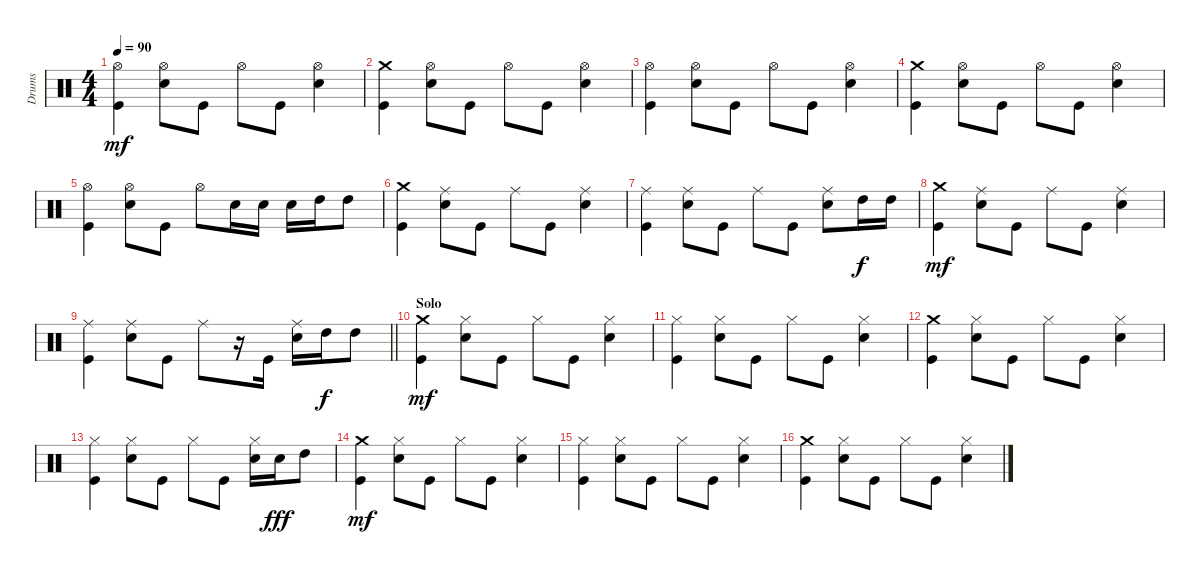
\track ("Drums" "Drums") {instrument percussion}
\staff {score}
\articulation defaults
\ts (4 4)
\tempo 90
\clef neutral
\ks c
("Hi-Hat (open)" "Kick (hit)").4{dy mf} ("Hi-Hat (open)" "Electric Snare (hit)").8 "Kick (hit)".8 "Hi-Hat (open)".8 "Kick (hit)".8 ("Hi-Hat (open)" "Electric Snare (hit)").4 |
("Crash medium (hit)" "Kick (hit)").4 ("Hi-Hat (open)" "Electric Snare (hit)").8 "Kick (hit)".8 "Hi-Hat (open)".8 "Kick (hit)".8 ("Hi-Hat (open)" "Electric Snare (hit)").4 |
("Hi-Hat (open)" "Kick (hit)").4 ("Hi-Hat (open)" "Electric Snare (hit)").8 "Kick (hit)".8 "Hi-Hat (open)".8 "Kick (hit)".8 ("Hi-Hat (open)" "Electric Snare (hit)").4 |
("Crash medium (hit)" "Kick (hit)").4 ("Hi-Hat (open)" "Electric Snare (hit)").8 "Kick (hit)".8 "Hi-Hat (open)".8 "Kick (hit)".8 ("Hi-Hat (open)" "Electric Snare (hit)").4 |
("Hi-Hat (open)" "Kick (hit)").4 ("Hi-Hat (open)" "Electric Snare (hit)").8 "Kick (hit)".8 "Hi-Hat (open)".8 "Electric Snare (hit)".16 "Electric Snare (hit)".16 "Electric Snare (hit)".16 "High Tom (hit)".16 "High Tom (hit)".8 |
("Crash medium (hit)" "Kick (hit)").4 ("Ride (middle)" "Electric Snare (hit)").8 "Kick (hit)".8 "Ride (middle)".8 "Kick (hit)".8 ("Ride (middle)" "Electric Snare (hit)").4 |
("Ride (middle)" "Kick (hit)").4 ("Ride (middle)" "Electric Snare (hit)").8 "Kick (hit)".8 "Ride (middle)".8 "Kick (hit)".8 ("Ride (middle)" "Electric Snare (hit)").8 "High Tom (hit)".16{dy f} "High Tom (hit)".16 |
("Crash medium (hit)" "Kick (hit)").4{dy mf} ("Ride (middle)" "Electric Snare (hit)").8 "Kick (hit)".8 "Ride (middle)".8 "Kick (hit)".8 ("Ride (middle)" "Electric Snare (hit)").4 |
\barLineRight lightlight
("Ride (middle)" "Kick (hit)").4 ("Ride (middle)" "Electric Snare (hit)").8 "Kick (hit)".8 "Ride (middle)".8 r.16 "Kick (hit)".16 ("Ride (middle)" "Electric Snare (hit)").16 "High Tom (hit)".16{dy f} "High Tom (hit)".8 |
\section ("" "Solo")
("Crash medium (hit)" "Kick (hit)").4{dy mf} ("Hi-Hat (closed)" "Electric Snare (hit)").8 "Kick (hit)".8 "Hi-Hat (closed)".8 "Kick (hit)".8 ("Hi-Hat (closed)" "Electric Snare (hit)").4 |
("Hi-Hat (closed)" "Kick (hit)").4 ("Hi-Hat (closed)" "Electric Snare (hit)").8 "Kick (hit)".8 "Hi-Hat (closed)".8 "Kick (hit)".8 ("Hi-Hat (closed)" "Electric Snare (hit)").4 |
("Crash medium (hit)" "Kick (hit)").4 ("Hi-Hat (closed)" "Electric Snare (hit)").8 "Kick (hit)".8 "Hi-Hat (closed)".8 "Kick (hit)".8 ("Hi-Hat (closed)" "Electric Snare (hit)").4 |
("Hi-Hat (closed)" "Kick (hit)").4 ("Hi-Hat (closed)" "Electric Snare (hit)").8 "Kick (hit)".8 "Hi-Hat (closed)".8 "Kick (hit)".8 ("Hi-Hat (closed)" "Electric Snare (hit)").16 "Electric Snare (hit)".16{dy fff} "High Tom (hit)".8 |
("Crash medium (hit)" "Kick (hit)").4{dy mf} ("Hi-Hat (closed)" "Electric Snare (hit)").8 "Kick (hit)".8 "Hi-Hat (closed)".8 "Kick (hit)".8 ("Hi-Hat (closed)" "Electric Snare (hit)").4 |
("Hi-Hat (closed)" "Kick (hit)").4 ("Hi-Hat (closed)" "Electric Snare (hit)").8 "Kick (hit)".8 "Hi-Hat (closed)".8 "Kick (hit)".8 ("Hi-Hat (closed)" "Electric Snare (hit)").4 |
("Crash medium (hit)" "Kick (hit)").4 ("Hi-Hat (closed)" "Electric Snare (hit)").8 "Kick (hit)".8 "Hi-Hat (closed)".8 "Kick (hit)".8 ("Hi-Hat (closed)" "Electric Snare (hit)").4
